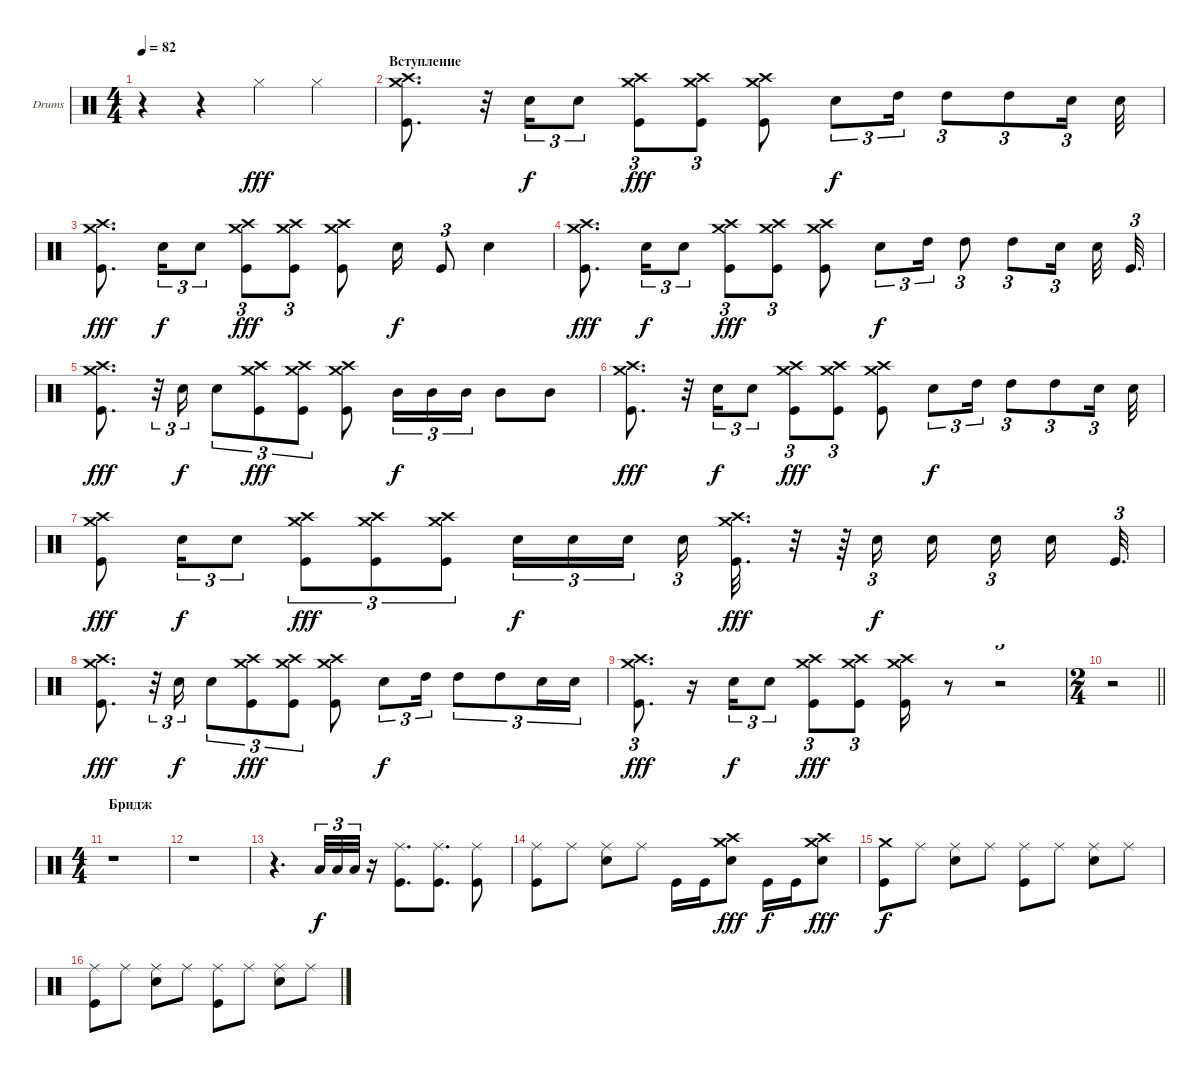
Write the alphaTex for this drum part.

\bracketExtendMode groupsimilarinstruments
\firstSystemTrackNameOrientation horizontal
\otherSystemsTrackNameOrientation horizontal
\track ("Александр Манякин" "Drums") {instrument percussion}
\staff {score}
\articulation defaults
\ts (4 4)
\tempo 82
\clef neutral
\ks c
r.4{dy fff} r.4 "Hi-Hat (closed)".4 "Hi-Hat (closed)".4 |
\beaming (8 2 2 2 2)
\section ("" "Вступление")
("Kick (hit)" "Crash medium (hit)" "Crash high (hit)").8{d} r.32 "Snare (hit) 2".16{tu (3 2) dy f} "Snare (hit) 2".8{tu (3 2)} ("Kick (hit)" "Crash medium (hit)" "Crash high (hit)").8{tu (3 2) dy fff} ("Kick (hit)" "Crash medium (hit)" "Crash high (hit)").8{tu (3 2)} ("Kick (hit)" "Crash medium (hit)" "Crash high (hit)").8 "Snare (hit) 2".8{tu (3 2) dy f} "High Tom (hit)".16{tu (3 2)} "High Tom (hit)".8{tu (3 2)} "High Tom (hit)".8{tu (3 2)} "Snare (hit) 2".16{tu (3 2)} "Snare (hit) 2".32 |
("Kick (hit)" "Crash medium (hit)" "Crash high (hit)").8{d dy fff} "Snare (hit) 2".16{tu (3 2) dy f} "Snare (hit) 2".8{tu (3 2)} ("Kick (hit)" "Crash medium (hit)" "Crash high (hit)").8{tu (3 2) dy fff} ("Kick (hit)" "Crash medium (hit)" "Crash high (hit)").8{tu (3 2)} ("Kick (hit)" "Crash medium (hit)" "Crash high (hit)").8 "Snare (hit) 2".16{dy f} "Kick (hit)".8{tu (3 2)} "Snare (hit) 2".4 |
("Kick (hit)" "Crash medium (hit)" "Crash high (hit)").8{d dy fff} "Snare (hit) 2".16{tu (3 2) dy f} "Snare (hit) 2".8{tu (3 2)} ("Kick (hit)" "Crash medium (hit)" "Crash high (hit)").8{tu (3 2) dy fff} ("Kick (hit)" "Crash medium (hit)" "Crash high (hit)").8{tu (3 2)} ("Kick (hit)" "Crash medium (hit)" "Crash high (hit)").8 "Snare (hit) 2".8{tu (3 2) dy f} "High Tom (hit)".16{tu (3 2)} "High Tom (hit)".8{tu (3 2)} "High Tom (hit)".8{tu (3 2)} "Snare (hit) 2".16{tu (3 2)} "Snare (hit) 2".32 "Kick (hit)".32{d tu (3 2)} |
("Kick (hit)" "Crash medium (hit)" "Crash high (hit)").8{d dy fff} r.32{tu (3 2)} "Snare (hit) 2".16{tu (3 2) dy f} "Snare (hit) 2".8{tu (3 2)} ("Kick (hit)" "Crash medium (hit)" "Crash high (hit)").8{tu (3 2) dy fff} ("Kick (hit)" "Crash medium (hit)" "Crash high (hit)").8{tu (3 2)} ("Kick (hit)" "Crash medium (hit)" "Crash high (hit)").8 "Mid Tom (hit)".16{tu (3 2) dy f} "Mid Tom (hit)".16{tu (3 2)} "Mid Tom (hit)".16{tu (3 2)} "Mid Tom (hit)".8 "Mid Tom (hit)".8 |
("Kick (hit)" "Crash medium (hit)" "Crash high (hit)").8{d dy fff} r.32 "Snare (hit) 2".16{tu (3 2) dy f} "Snare (hit) 2".8{tu (3 2)} ("Kick (hit)" "Crash medium (hit)" "Crash high (hit)").8{tu (3 2) dy fff} ("Kick (hit)" "Crash medium (hit)" "Crash high (hit)").8{tu (3 2)} ("Kick (hit)" "Crash medium (hit)" "Crash high (hit)").8 "Snare (hit) 2".8{tu (3 2) dy f} "High Tom (hit)".16{tu (3 2)} "High Tom (hit)".8{tu (3 2)} "High Tom (hit)".8{tu (3 2)} "Snare (hit) 2".16{tu (3 2)} "Snare (hit) 2".32 |
("Kick (hit)" "Crash medium (hit)" "Crash high (hit)").8{dy fff} "Snare (hit) 2".16{tu (3 2) dy f} "Snare (hit) 2".8{tu (3 2)} ("Kick (hit)" "Crash high (hit)" "Crash medium (hit)").8{tu (3 2) dy fff} ("Kick (hit)" "Crash medium (hit)" "Crash high (hit)").8{tu (3 2)} ("Kick (hit)" "Crash medium (hit)" "Crash high (hit)").8{tu (3 2)} "Snare (hit) 2".16{tu (3 2) dy f} "Snare (hit) 2".16{tu (3 2)} "Snare (hit) 2".16{tu (3 2)} "Snare (hit) 2".16{tu (3 2)} ("Kick (hit)" "Crash high (hit)" "Crash medium (hit)").32{d dy fff} r.32 r.64 "Snare (hit) 2".16{tu (3 2) dy f} "Snare (hit) 2".16 "Snare (hit) 2".16{tu (3 2)} "Snare (hit) 2".16 "Kick (hit)".32{d tu (3 2)} |
("Crash medium (hit)" "Crash high (hit)" "Kick (hit)").8{d dy fff} r.32{tu (3 2)} "Snare (hit) 2".16{tu (3 2) dy f} "Snare (hit) 2".8{tu (3 2)} ("Kick (hit)" "Crash medium (hit)" "Crash high (hit)").8{tu (3 2) dy fff} ("Kick (hit)" "Crash medium (hit)" "Crash high (hit)").8{tu (3 2)} ("Kick (hit)" "Crash medium (hit)" "Crash high (hit)").8 "Snare (hit) 2".8{tu (3 2) dy f} "High Tom (hit)".16{tu (3 2)} "High Tom (hit)".8{tu (3 2)} "High Tom (hit)".8{tu (3 2)} "Snare (hit) 2".16{tu (3 2)} "Snare (hit) 2".16{tu (3 2)} |
("Kick (hit)" "Crash medium (hit)" "Crash high (hit)").8{d tu (3 2) dy fff} r.16 "Snare (hit) 2".16{tu (3 2) dy f} "Snare (hit) 2".8{tu (3 2)} ("Kick (hit)" "Crash medium (hit)" "Crash high (hit)").8{tu (3 2) dy fff} ("Kick (hit)" "Crash medium (hit)" "Crash high (hit)").8{tu (3 2)} ("Kick (hit)" "Crash high (hit)" "Crash medium (hit)").16 r.8 r.2{tu (3 2)} |
\ts (2 4)
\beaming (8 2 2)
\barLineRight lightlight
r.2 |
\ts (4 4)
\beaming (8 2 2 2 2)
\section ("" "Бридж")
r.1 |
r.1 |
r.4{d} "Low Tom (hit)".32{tu (3 2) dy f} "Low Tom (hit)".32{tu (3 2)} "Low Tom (hit)".32{tu (3 2)} r.16 ("Kick (hit)" "Ride (middle)").8{d} ("Kick (hit)" "Ride (middle)").8{d} ("Kick (hit)" "Ride (middle)").8 |
("Kick (hit)" "Ride (middle)").8 "Ride (middle)".8 ("Snare (hit) 2" "Ride (middle)").8 "Ride (middle)".8 "Kick (hit)".16 "Kick (hit)".16 ("Snare (hit) 2" "Crash medium (hit)" "Crash high (hit)").8{dy fff} "Kick (hit)".16{dy f} "Kick (hit)".16 ("Snare (hit) 2" "Crash medium (hit)" "Crash high (hit)").8{dy fff} |
("Kick (hit)" "Crash medium (hit)").8{dy f} "Ride (middle)".8 ("Snare (hit) 2" "Ride (middle)").8 "Ride (middle)".8 ("Kick (hit)" "Ride (middle)").8 "Ride (middle)".8 ("Snare (hit) 2" "Ride (middle)").8 "Ride (middle)".8 |
("Kick (hit)" "Ride (middle)").8 "Ride (middle)".8 ("Snare (hit) 2" "Ride (middle)").8 "Ride (middle)".8 ("Kick (hit)" "Ride (middle)").8 "Ride (middle)".8 ("Snare (hit) 2" "Ride (middle)").8 "Ride (middle)".8
